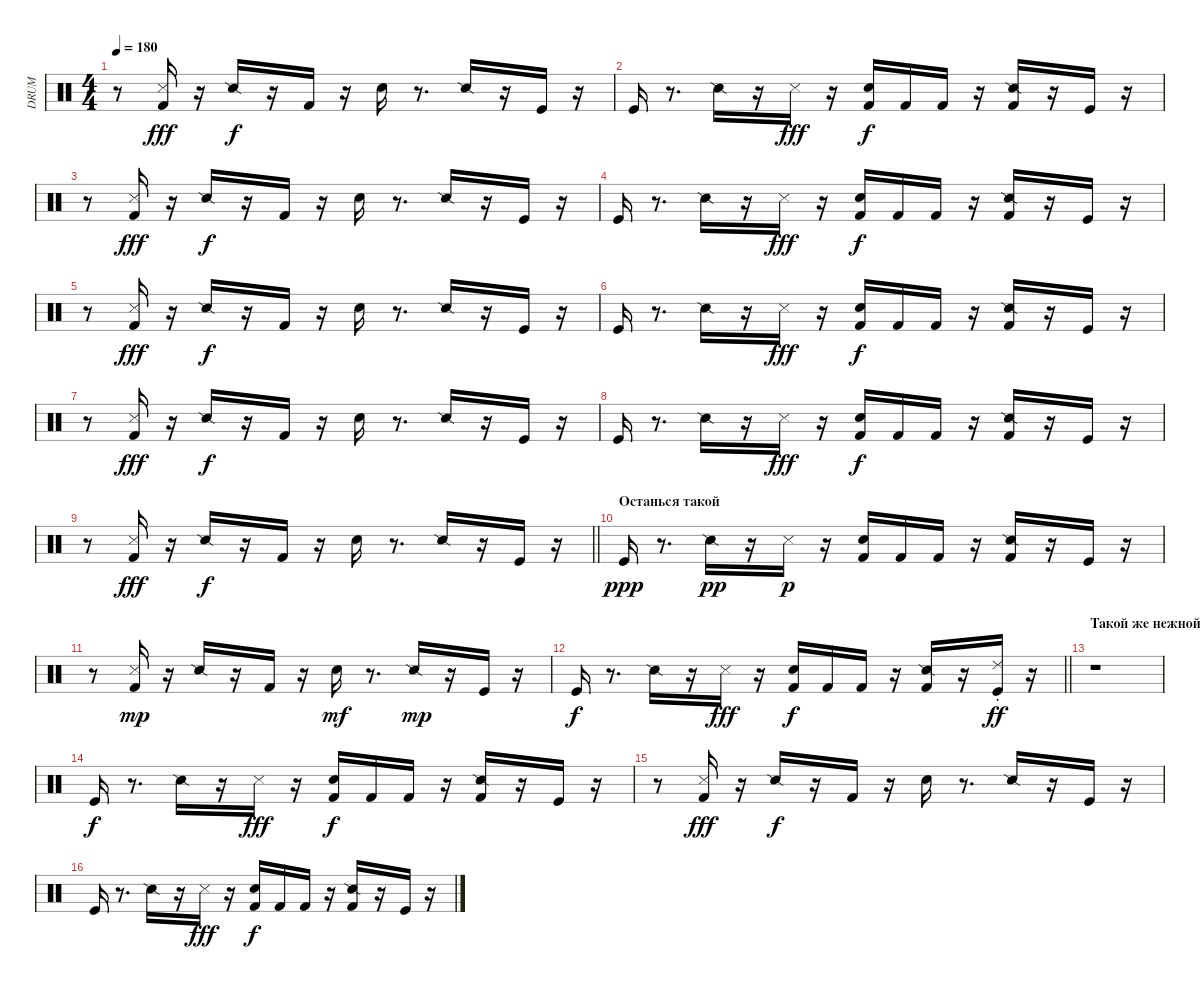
\track ("DRUM" "DRUM") {instrument percussion}
\staff {score}
\articulation defaults
\ts (4 4)
\tempo 180
\clef neutral
\ks c
r.8{dy f} ("Snare (side stick) 3" "Kick (hit) 2").16{dy fff} r.16 "Snare (side stick) 2".16{dy f} r.16 "Kick (hit) 2".16 r.16 "Snare (hit) 2".16 r.8{d} "Snare (side stick) 2".16 r.16 "Kick (hit)".16 r.16 |
"Kick (hit)".16 r.8{d} "Snare (side stick) 2".16 r.16 "Snare (side stick) 3".16{dy fff} r.16 ("Kick (hit) 2" "Snare (hit) 2").16{dy f} "Kick (hit) 2".16 "Kick (hit) 2".16 r.16 ("Snare (side stick) 2" "Kick (hit) 2").16 r.16 "Kick (hit)".16 r.16 |
r.8 ("Snare (side stick) 3" "Kick (hit) 2").16{dy fff} r.16 "Snare (side stick) 2".16{dy f} r.16 "Kick (hit) 2".16 r.16 "Snare (hit) 2".16 r.8{d} "Snare (side stick) 2".16 r.16 "Kick (hit)".16 r.16 |
"Kick (hit)".16 r.8{d} "Snare (side stick) 2".16 r.16 "Snare (side stick) 3".16{dy fff} r.16 ("Kick (hit) 2" "Snare (hit) 2").16{dy f} "Kick (hit) 2".16 "Kick (hit) 2".16 r.16 ("Snare (side stick) 2" "Kick (hit) 2").16 r.16 "Kick (hit)".16 r.16 |
r.8 ("Snare (side stick) 3" "Kick (hit) 2").16{dy fff} r.16 "Snare (side stick) 2".16{dy f} r.16 "Kick (hit) 2".16 r.16 "Snare (hit) 2".16 r.8{d} "Snare (side stick) 2".16 r.16 "Kick (hit)".16 r.16 |
"Kick (hit)".16 r.8{d} "Snare (side stick) 2".16 r.16 "Snare (side stick) 3".16{dy fff} r.16 ("Kick (hit) 2" "Snare (hit) 2").16{dy f} "Kick (hit) 2".16 "Kick (hit) 2".16 r.16 ("Snare (side stick) 2" "Kick (hit) 2").16 r.16 "Kick (hit)".16 r.16 |
r.8 ("Snare (side stick) 3" "Kick (hit) 2").16{dy fff} r.16 "Snare (side stick) 2".16{dy f} r.16 "Kick (hit) 2".16 r.16 "Snare (hit) 2".16 r.8{d} "Snare (side stick) 2".16 r.16 "Kick (hit)".16 r.16 |
"Kick (hit)".16 r.8{d} "Snare (side stick) 2".16 r.16 "Snare (side stick) 3".16{dy fff} r.16 ("Kick (hit) 2" "Snare (hit) 2").16{dy f} "Kick (hit) 2".16 "Kick (hit) 2".16 r.16 ("Snare (side stick) 2" "Kick (hit) 2").16 r.16 "Kick (hit)".16 r.16 |
\barLineRight lightlight
r.8 ("Snare (side stick) 3" "Kick (hit) 2").16{dy fff} r.16 "Snare (side stick) 2".16{dy f} r.16 "Kick (hit) 2".16 r.16 "Snare (hit) 2".16 r.8{d} "Snare (side stick) 2".16 r.16 "Kick (hit)".16 r.16 |
\section ("" "Останься такой")
"Kick (hit)".16{dy ppp} r.8{d} "Snare (side stick) 2".16{dy pp} r.16 "Snare (side stick) 3".16{dy p} r.16 ("Snare (hit) 2" "Kick (hit) 2").16 "Kick (hit) 2".16 "Kick (hit) 2".16 r.16 ("Snare (side stick) 2" "Kick (hit) 2").16 r.16 "Kick (hit)".16 r.16 |
r.8 ("Snare (side stick) 3" "Kick (hit) 2").16{dy mp} r.16 "Snare (side stick) 2".16 r.16 "Kick (hit) 2".16 r.16 "Snare (hit) 2".16{dy mf} r.8{d} "Snare (side stick) 2".16{dy mp} r.16 "Kick (hit)".16 r.16 |
\barLineRight lightlight "Kick (hit)".16{dy f}
r.8{d} "Snare (side stick) 2".16 r.16 "Snare (side stick) 3".16{dy fff} r.16 ("Kick (hit) 2" "Snare (hit) 2").16{dy f} "Kick (hit) 2".16 "Kick (hit) 2".16 r.16 ("Snare (side stick) 2" "Kick (hit) 2").16 r.16 ("Ride (choke) 2" "Kick (hit)").16{dy ff} r.16 |
\section ("" "Такой же нежной и настоящей")
r.1 |
"Kick (hit)".16{dy f} r.8{d} "Snare (side stick) 2".16 r.16 "Snare (side stick) 3".16{dy fff} r.16 ("Kick (hit) 2" "Snare (hit) 2").16{dy f} "Kick (hit) 2".16 "Kick (hit) 2".16 r.16 ("Snare (side stick) 2" "Kick (hit) 2").16 r.16 "Kick (hit)".16 r.16 |
r.8 ("Snare (side stick) 3" "Kick (hit) 2").16{dy fff} r.16 "Snare (side stick) 2".16{dy f} r.16 "Kick (hit) 2".16 r.16 "Snare (hit) 2".16 r.8{d} "Snare (side stick) 2".16 r.16 "Kick (hit)".16 r.16 |
"Kick (hit)".16 r.8{d} "Snare (side stick) 2".16 r.16 "Snare (side stick) 3".16{dy fff} r.16 ("Kick (hit) 2" "Snare (hit) 2").16{dy f} "Kick (hit) 2".16 "Kick (hit) 2".16 r.16 ("Snare (side stick) 2" "Kick (hit) 2").16 r.16 "Kick (hit)".16 r.16
